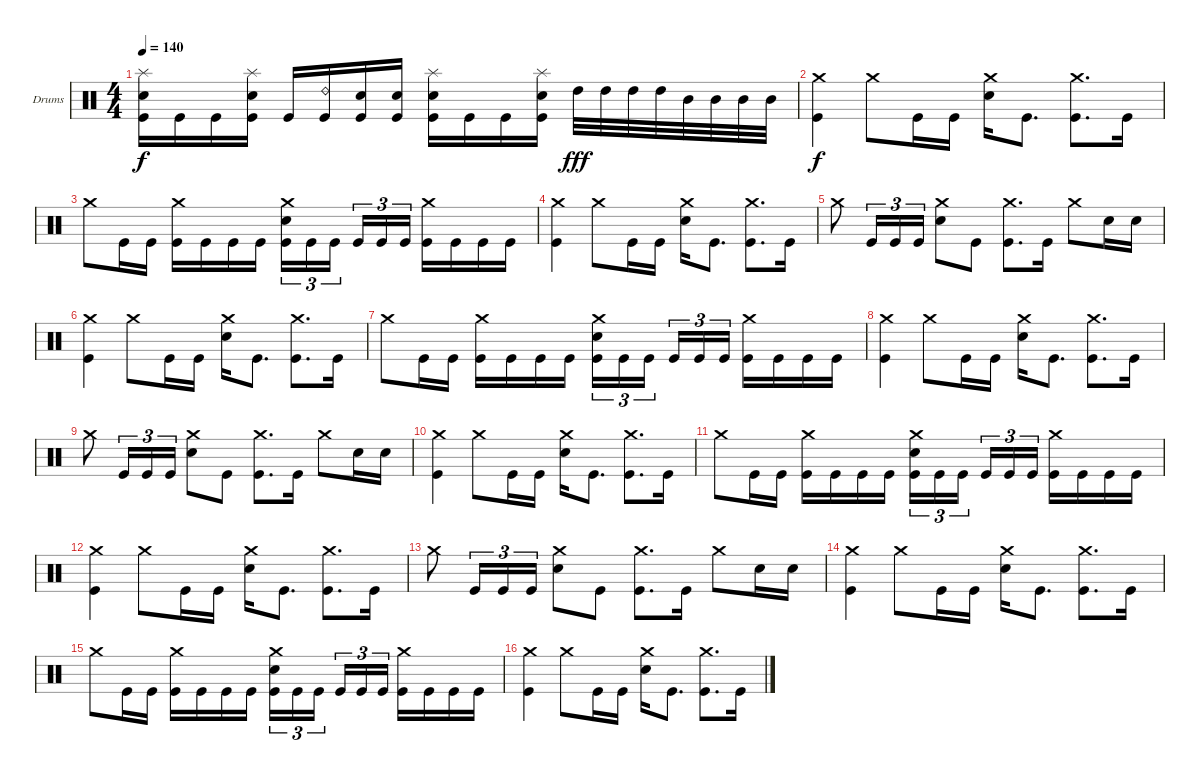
\defaultSystemsLayout 4
\bracketExtendMode groupsimilarinstruments
\firstSystemTrackNameOrientation horizontal
\otherSystemsTrackNameOrientation horizontal
\track ("Drumkit" "Drums") {instrument percussion}
\staff {score}
\articulation defaults
\ts (4 4)
\tempo 140
\clef neutral
\ks c
("Splash (hit)" "Kick (hit)" "Snare (hit) 2").16{dy f} "Kick (hit)".16 "Kick (hit)".16 ("Splash (hit)" "Kick (hit)" "Snare (hit) 2").16 "Kick (hit)".16 ("Ride (bell) 2" "Kick (hit)").16 ("Kick (hit)" "Snare (hit) 2").16 ("Kick (hit)" "Snare (hit) 2").16 ("Splash (hit)" "Kick (hit)" "Snare (hit) 2").16 "Kick (hit)".16 "Kick (hit)".16 ("Splash (hit)" "Kick (hit)" "Snare (hit) 2").16 "High Tom (hit)".32{dy fff} "High Tom (hit)".32 "High Tom (hit)".32 "High Tom (hit)".32 "Mid Tom (hit)".32 "Mid Tom (hit)".32 "Mid Tom (hit)".32 "Mid Tom (hit)".32 |
("Crash medium (hit)" "Kick (hit)").4{dy f} "Crash medium (hit)".8 "Kick (hit)".16 "Kick (hit)".16 ("Crash medium (hit)" "Snare (hit) 2").16 "Kick (hit)".8{d} ("Crash medium (hit)" "Kick (hit)").8{d} "Kick (hit)".16 |
"Crash medium (hit)".8 "Kick (hit)".16 "Kick (hit)".16 ("Crash medium (hit)" "Kick (hit)").16 "Kick (hit)".16 "Kick (hit)".16 "Kick (hit)".16 ("Crash medium (hit)" "Snare (hit) 2" "Kick (hit)").16{tu (3 2)} "Kick (hit)".16{tu (3 2)} "Kick (hit)".16{tu (3 2)} "Kick (hit)".16{tu (3 2)} "Kick (hit)".16{tu (3 2)} "Kick (hit)".16{tu (3 2)} ("Crash medium (hit)" "Kick (hit)").16 "Kick (hit)".16 "Kick (hit)".16 "Kick (hit)".16 |
("Crash medium (hit)" "Kick (hit)").4 "Crash medium (hit)".8 "Kick (hit)".16 "Kick (hit)".16 ("Crash medium (hit)" "Snare (hit) 2").16 "Kick (hit)".8{d} ("Crash medium (hit)" "Kick (hit)").8{d} "Kick (hit)".16 |
"Crash medium (hit)".8 "Kick (hit)".16{tu (3 2)} "Kick (hit)".16{tu (3 2)} "Kick (hit)".16{tu (3 2)} ("Crash medium (hit)" "Snare (hit) 2").8 "Kick (hit)".8 ("Crash medium (hit)" "Kick (hit)").8{d} "Kick (hit)".16 "Crash medium (hit)".8 "Snare (hit) 2".16 "Snare (hit) 2".16 |
("Crash medium (hit)" "Kick (hit)").4 "Crash medium (hit)".8 "Kick (hit)".16 "Kick (hit)".16 ("Crash medium (hit)" "Snare (hit) 2").16 "Kick (hit)".8{d} ("Crash medium (hit)" "Kick (hit)").8{d} "Kick (hit)".16 |
"Crash medium (hit)".8 "Kick (hit)".16 "Kick (hit)".16 ("Crash medium (hit)" "Kick (hit)").16 "Kick (hit)".16 "Kick (hit)".16 "Kick (hit)".16 ("Crash medium (hit)" "Snare (hit) 2" "Kick (hit)").16{tu (3 2)} "Kick (hit)".16{tu (3 2)} "Kick (hit)".16{tu (3 2)} "Kick (hit)".16{tu (3 2)} "Kick (hit)".16{tu (3 2)} "Kick (hit)".16{tu (3 2)} ("Crash medium (hit)" "Kick (hit)").16 "Kick (hit)".16 "Kick (hit)".16 "Kick (hit)".16 |
("Crash medium (hit)" "Kick (hit)").4 "Crash medium (hit)".8 "Kick (hit)".16 "Kick (hit)".16 ("Crash medium (hit)" "Snare (hit) 2").16 "Kick (hit)".8{d} ("Crash medium (hit)" "Kick (hit)").8{d} "Kick (hit)".16 |
"Crash medium (hit)".8 "Kick (hit)".16{tu (3 2)} "Kick (hit)".16{tu (3 2)} "Kick (hit)".16{tu (3 2)} ("Crash medium (hit)" "Snare (hit) 2").8 "Kick (hit)".8 ("Crash medium (hit)" "Kick (hit)").8{d} "Kick (hit)".16 "Crash medium (hit)".8 "Snare (hit) 2".16 "Snare (hit) 2".16 |
("Crash medium (hit)" "Kick (hit)").4 "Crash medium (hit)".8 "Kick (hit)".16 "Kick (hit)".16 ("Crash medium (hit)" "Snare (hit) 2").16 "Kick (hit)".8{d} ("Crash medium (hit)" "Kick (hit)").8{d} "Kick (hit)".16 |
"Crash medium (hit)".8 "Kick (hit)".16 "Kick (hit)".16 ("Crash medium (hit)" "Kick (hit)").16 "Kick (hit)".16 "Kick (hit)".16 "Kick (hit)".16 ("Crash medium (hit)" "Snare (hit) 2" "Kick (hit)").16{tu (3 2)} "Kick (hit)".16{tu (3 2)} "Kick (hit)".16{tu (3 2)} "Kick (hit)".16{tu (3 2)} "Kick (hit)".16{tu (3 2)} "Kick (hit)".16{tu (3 2)} ("Crash medium (hit)" "Kick (hit)").16 "Kick (hit)".16 "Kick (hit)".16 "Kick (hit)".16 |
("Crash medium (hit)" "Kick (hit)").4 "Crash medium (hit)".8 "Kick (hit)".16 "Kick (hit)".16 ("Crash medium (hit)" "Snare (hit) 2").16 "Kick (hit)".8{d} ("Crash medium (hit)" "Kick (hit)").8{d} "Kick (hit)".16 |
"Crash medium (hit)".8 "Kick (hit)".16{tu (3 2)} "Kick (hit)".16{tu (3 2)} "Kick (hit)".16{tu (3 2)} ("Crash medium (hit)" "Snare (hit) 2").8 "Kick (hit)".8 ("Crash medium (hit)" "Kick (hit)").8{d} "Kick (hit)".16 "Crash medium (hit)".8 "Snare (hit) 2".16 "Snare (hit) 2".16 |
("Crash medium (hit)" "Kick (hit)").4 "Crash medium (hit)".8 "Kick (hit)".16 "Kick (hit)".16 ("Crash medium (hit)" "Snare (hit) 2").16 "Kick (hit)".8{d} ("Crash medium (hit)" "Kick (hit)").8{d} "Kick (hit)".16 |
"Crash medium (hit)".8 "Kick (hit)".16 "Kick (hit)".16 ("Crash medium (hit)" "Kick (hit)").16 "Kick (hit)".16 "Kick (hit)".16 "Kick (hit)".16 ("Crash medium (hit)" "Snare (hit) 2" "Kick (hit)").16{tu (3 2)} "Kick (hit)".16{tu (3 2)} "Kick (hit)".16{tu (3 2)} "Kick (hit)".16{tu (3 2)} "Kick (hit)".16{tu (3 2)} "Kick (hit)".16{tu (3 2)} ("Crash medium (hit)" "Kick (hit)").16 "Kick (hit)".16 "Kick (hit)".16 "Kick (hit)".16 |
("Crash medium (hit)" "Kick (hit)").4 "Crash medium (hit)".8 "Kick (hit)".16 "Kick (hit)".16 ("Crash medium (hit)" "Snare (hit) 2").16 "Kick (hit)".8{d} ("Crash medium (hit)" "Kick (hit)").8{d} "Kick (hit)".16
